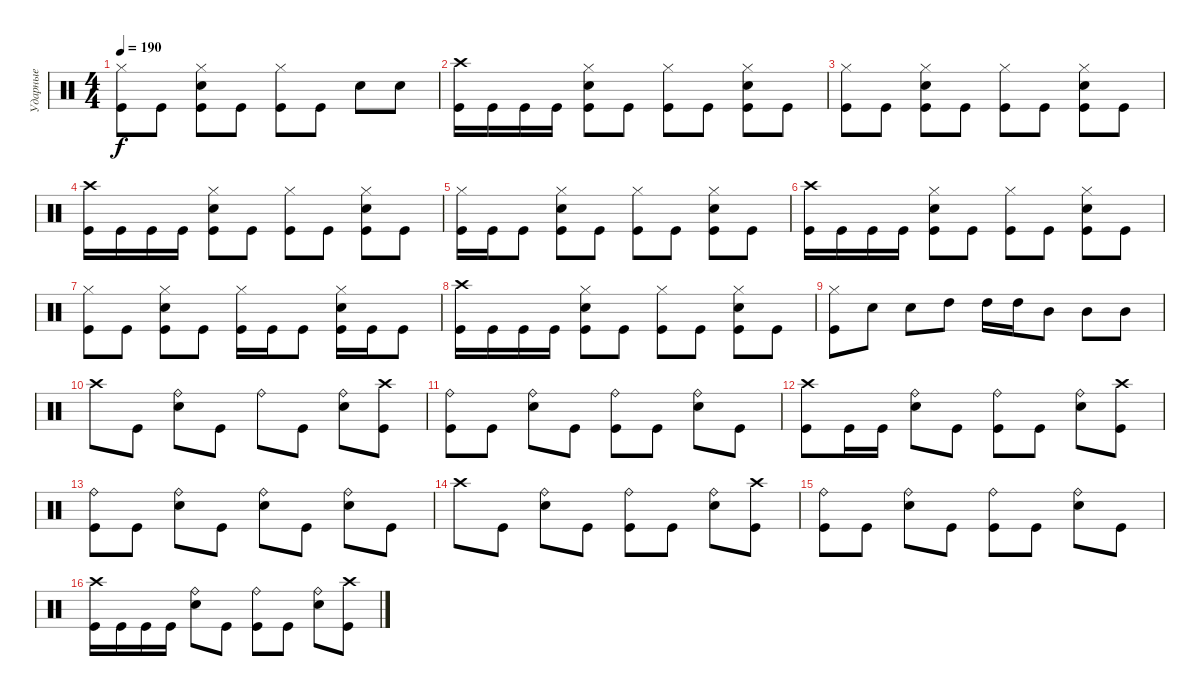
\track ("Ударные" "Ударные") {instrument percussion}
\staff {score}
\articulation defaults
\ts (4 4)
\tempo 190
\clef neutral
\ks c
("Hi-Hat (closed)" "Kick (hit)").8{dy f} "Kick (hit)".8 ("Hi-Hat (closed)" "Electric Snare (hit)" "Kick (hit)").8 "Kick (hit)".8 ("Hi-Hat (closed)" "Kick (hit)").8 "Kick (hit)".8 "Electric Snare (hit)".8 "Electric Snare (hit)".8 |
("Crash high (hit)" "Kick (hit)").16 "Kick (hit)".16 "Kick (hit)".16 "Kick (hit)".16 ("Hi-Hat (closed)" "Electric Snare (hit)" "Kick (hit)").8 "Kick (hit)".8 ("Hi-Hat (closed)" "Kick (hit)").8 "Kick (hit)".8 ("Hi-Hat (closed)" "Electric Snare (hit)" "Kick (hit)").8 "Kick (hit)".8 |
("Hi-Hat (closed)" "Kick (hit)").8 "Kick (hit)".8 ("Hi-Hat (closed)" "Electric Snare (hit)" "Kick (hit)").8 "Kick (hit)".8 ("Hi-Hat (closed)" "Kick (hit)").8 "Kick (hit)".8 ("Hi-Hat (closed)" "Electric Snare (hit)" "Kick (hit)").8 "Kick (hit)".8 |
("Crash high (hit)" "Kick (hit)").16 "Kick (hit)".16 "Kick (hit)".16 "Kick (hit)".16 ("Hi-Hat (closed)" "Electric Snare (hit)" "Kick (hit)").8 "Kick (hit)".8 ("Hi-Hat (closed)" "Kick (hit)").8 "Kick (hit)".8 ("Hi-Hat (closed)" "Electric Snare (hit)" "Kick (hit)").8 "Kick (hit)".8 |
("Hi-Hat (closed)" "Kick (hit)").16 "Kick (hit)".16 "Kick (hit)".8 ("Hi-Hat (closed)" "Electric Snare (hit)" "Kick (hit)").8 "Kick (hit)".8 ("Hi-Hat (closed)" "Kick (hit)").8 "Kick (hit)".8 ("Hi-Hat (closed)" "Electric Snare (hit)" "Kick (hit)").8 "Kick (hit)".8 |
("Crash high (hit)" "Kick (hit)").16 "Kick (hit)".16 "Kick (hit)".16 "Kick (hit)".16 ("Hi-Hat (closed)" "Electric Snare (hit)" "Kick (hit)").8 "Kick (hit)".8 ("Hi-Hat (closed)" "Kick (hit)").8 "Kick (hit)".8 ("Hi-Hat (closed)" "Electric Snare (hit)" "Kick (hit)").8 "Kick (hit)".8 |
("Hi-Hat (closed)" "Kick (hit)").8 "Kick (hit)".8 ("Hi-Hat (closed)" "Electric Snare (hit)" "Kick (hit)").8 "Kick (hit)".8 ("Hi-Hat (closed)" "Kick (hit)").16 "Kick (hit)".16 "Kick (hit)".8 ("Hi-Hat (closed)" "Electric Snare (hit)" "Kick (hit)").16 "Kick (hit)".16 "Kick (hit)".8 |
("Crash high (hit)" "Kick (hit)").16 "Kick (hit)".16 "Kick (hit)".16 "Kick (hit)".16 ("Hi-Hat (closed)" "Electric Snare (hit)" "Kick (hit)").8 "Kick (hit)".8 ("Hi-Hat (closed)" "Kick (hit)").8 "Kick (hit)".8 ("Hi-Hat (closed)" "Electric Snare (hit)" "Kick (hit)").8 "Kick (hit)".8 |
("Hi-Hat (closed)" "Kick (hit)").8 "Electric Snare (hit)".8 "Electric Snare (hit)".8 "High Tom (hit)".8 "High Tom (hit)".16 "High Tom (hit)".16 "Mid Tom (hit)".8 "Mid Tom (hit)".8 "Mid Tom (hit)".8 |
"Crash high (hit)".8 "Kick (hit)".8 ("Ride (bell)" "Electric Snare (hit)").8 "Kick (hit)".8 "Ride (bell)".8 "Kick (hit)".8 ("Ride (bell)" "Electric Snare (hit)").8 ("Crash high (hit)" "Kick (hit)").8 |
("Ride (bell)" "Kick (hit)").8 "Kick (hit)".8 ("Ride (bell)" "Electric Snare (hit)").8 "Kick (hit)".8 ("Ride (bell)" "Kick (hit)").8 "Kick (hit)".8 ("Ride (bell)" "Electric Snare (hit)").8 "Kick (hit)".8 |
("Crash high (hit)" "Kick (hit)").8 "Kick (hit)".16 "Kick (hit)".16 ("Ride (bell)" "Electric Snare (hit)").8 "Kick (hit)".8 ("Ride (bell)" "Kick (hit)").8 "Kick (hit)".8 ("Ride (bell)" "Electric Snare (hit)").8 ("Crash high (hit)" "Kick (hit)").8 |
("Ride (bell)" "Kick (hit)").8 "Kick (hit)".8 ("Ride (bell)" "Electric Snare (hit)").8 "Kick (hit)".8 ("Ride (bell)" "Electric Snare (hit)").8 "Kick (hit)".8 ("Ride (bell)" "Electric Snare (hit)").8 "Kick (hit)".8 |
"Crash high (hit)".8 "Kick (hit)".8 ("Ride (bell)" "Electric Snare (hit)").8 "Kick (hit)".8 ("Ride (bell)" "Kick (hit)").8 "Kick (hit)".8 ("Ride (bell)" "Electric Snare (hit)").8 ("Crash high (hit)" "Kick (hit)").8 |
("Ride (bell)" "Kick (hit)").8 "Kick (hit)".8 ("Ride (bell)" "Electric Snare (hit)").8 "Kick (hit)".8 ("Ride (bell)" "Kick (hit)").8 "Kick (hit)".8 ("Ride (bell)" "Electric Snare (hit)").8 "Kick (hit)".8 |
("Crash high (hit)" "Kick (hit)").16 "Kick (hit)".16 "Kick (hit)".16 "Kick (hit)".16 ("Ride (bell)" "Electric Snare (hit)").8 "Kick (hit)".8 ("Ride (bell)" "Kick (hit)").8 "Kick (hit)".8 ("Ride (bell)" "Electric Snare (hit)").8 ("Crash high (hit)" "Kick (hit)").8
